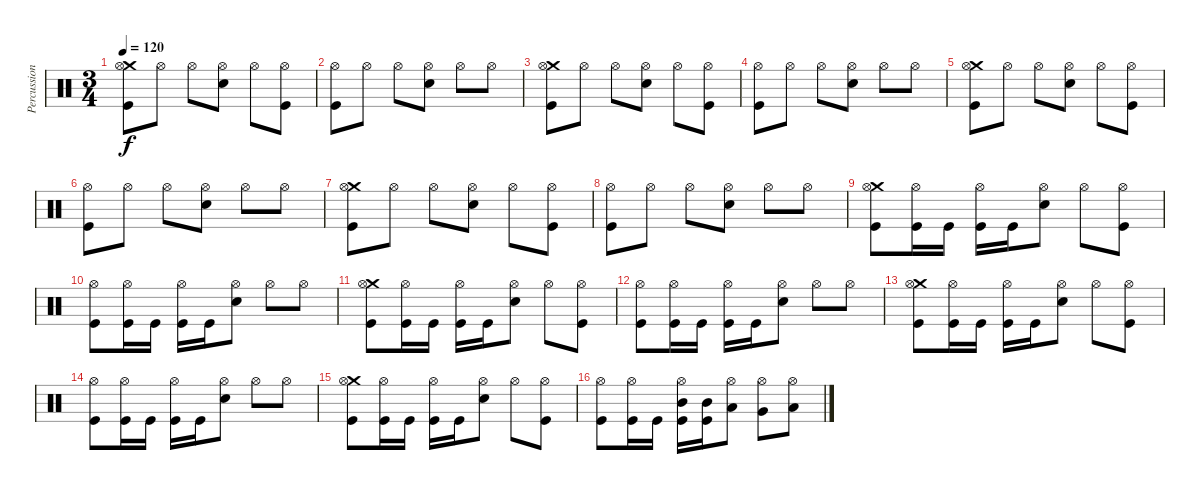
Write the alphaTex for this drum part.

\track ("Percussion" "Percussion") {instrument percussion}
\staff {score}
\articulation defaults
\ts (3 4)
\tempo 120
\clef neutral
\ks c
("Crash medium (hit)" "Hi-Hat (open)" "Kick (hit)").8{dy f} "Hi-Hat (open)".8 "Hi-Hat (open)".8 ("Electric Snare (hit)" "Hi-Hat (open)").8 "Hi-Hat (open)".8 ("Hi-Hat (open)" "Kick (hit)").8 |
("Hi-Hat (open)" "Kick (hit)").8 "Hi-Hat (open)".8 "Hi-Hat (open)".8 ("Electric Snare (hit)" "Hi-Hat (open)").8 "Hi-Hat (open)".8 "Hi-Hat (open)".8 |
("Crash medium (hit)" "Hi-Hat (open)" "Kick (hit)").8 "Hi-Hat (open)".8 "Hi-Hat (open)".8 ("Electric Snare (hit)" "Hi-Hat (open)").8 "Hi-Hat (open)".8 ("Hi-Hat (open)" "Kick (hit)").8 |
("Hi-Hat (open)" "Kick (hit)").8 "Hi-Hat (open)".8 "Hi-Hat (open)".8 ("Electric Snare (hit)" "Hi-Hat (open)").8 "Hi-Hat (open)".8 "Hi-Hat (open)".8 |
("Crash medium (hit)" "Hi-Hat (open)" "Kick (hit)").8 "Hi-Hat (open)".8 "Hi-Hat (open)".8 ("Electric Snare (hit)" "Hi-Hat (open)").8 "Hi-Hat (open)".8 ("Hi-Hat (open)" "Kick (hit)").8 |
("Hi-Hat (open)" "Kick (hit)").8 "Hi-Hat (open)".8 "Hi-Hat (open)".8 ("Electric Snare (hit)" "Hi-Hat (open)").8 "Hi-Hat (open)".8 "Hi-Hat (open)".8 |
("Crash medium (hit)" "Hi-Hat (open)" "Kick (hit)").8 "Hi-Hat (open)".8 "Hi-Hat (open)".8 ("Electric Snare (hit)" "Hi-Hat (open)").8 "Hi-Hat (open)".8 ("Hi-Hat (open)" "Kick (hit)").8 |
("Hi-Hat (open)" "Kick (hit)").8 "Hi-Hat (open)".8 "Hi-Hat (open)".8 ("Electric Snare (hit)" "Hi-Hat (open)").8 "Hi-Hat (open)".8 "Hi-Hat (open)".8 |
("Crash medium (hit)" "Hi-Hat (open)" "Kick (hit)").8 ("Hi-Hat (open)" "Kick (hit)").16 "Kick (hit)".16 ("Hi-Hat (open)" "Kick (hit)").16 "Kick (hit)".16 ("Electric Snare (hit)" "Hi-Hat (open)").8 "Hi-Hat (open)".8 ("Hi-Hat (open)" "Kick (hit)").8 |
("Hi-Hat (open)" "Kick (hit)").8 ("Hi-Hat (open)" "Kick (hit)").16 "Kick (hit)".16 ("Hi-Hat (open)" "Kick (hit)").16 "Kick (hit)".16 ("Electric Snare (hit)" "Hi-Hat (open)").8 "Hi-Hat (open)".8 "Hi-Hat (open)".8 |
("Crash medium (hit)" "Hi-Hat (open)" "Kick (hit)").8 ("Hi-Hat (open)" "Kick (hit)").16 "Kick (hit)".16 ("Hi-Hat (open)" "Kick (hit)").16 "Kick (hit)".16 ("Electric Snare (hit)" "Hi-Hat (open)").8 "Hi-Hat (open)".8 ("Hi-Hat (open)" "Kick (hit)").8 |
("Hi-Hat (open)" "Kick (hit)").8 ("Hi-Hat (open)" "Kick (hit)").16 "Kick (hit)".16 ("Hi-Hat (open)" "Kick (hit)").16 "Kick (hit)".16 ("Electric Snare (hit)" "Hi-Hat (open)").8 "Hi-Hat (open)".8 "Hi-Hat (open)".8 |
("Crash medium (hit)" "Hi-Hat (open)" "Kick (hit)").8 ("Hi-Hat (open)" "Kick (hit)").16 "Kick (hit)".16 ("Hi-Hat (open)" "Kick (hit)").16 "Kick (hit)".16 ("Electric Snare (hit)" "Hi-Hat (open)").8 "Hi-Hat (open)".8 ("Hi-Hat (open)" "Kick (hit)").8 |
("Hi-Hat (open)" "Kick (hit)").8 ("Hi-Hat (open)" "Kick (hit)").16 "Kick (hit)".16 ("Hi-Hat (open)" "Kick (hit)").16 "Kick (hit)".16 ("Electric Snare (hit)" "Hi-Hat (open)").8 "Hi-Hat (open)".8 "Hi-Hat (open)".8 |
("Crash medium (hit)" "Hi-Hat (open)" "Kick (hit)").8 ("Hi-Hat (open)" "Kick (hit)").16 "Kick (hit)".16 ("Hi-Hat (open)" "Kick (hit)").16 "Kick (hit)".16 ("Electric Snare (hit)" "Hi-Hat (open)").8 "Hi-Hat (open)".8 ("Hi-Hat (open)" "Kick (hit)").8 |
("Hi-Hat (open)" "Kick (hit)").8 ("Hi-Hat (open)" "Kick (hit)").16 "Kick (hit)".16 ("Mid Tom (hit)" "Hi-Hat (open)" "Kick (hit)").16 ("Mid Tom (hit)" "Kick (hit)").16 ("Low Tom (hit)" "Hi-Hat (open)").8 ("Very Low Tom (hit)" "Hi-Hat (open)").8 ("Low Floor Tom (hit)" "Hi-Hat (open)").8
